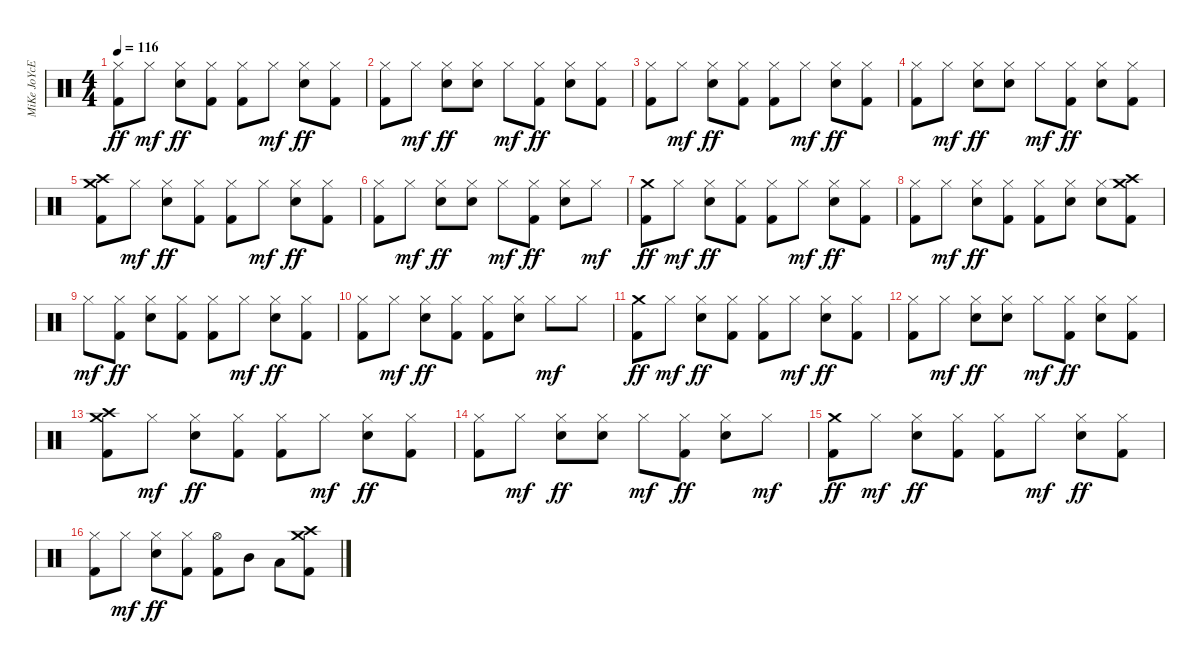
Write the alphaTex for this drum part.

\track ("MiKe JoYcE" "MiKe JoYcE") {instrument percussion}
\staff {score}
\articulation defaults
\ts (4 4)
\tempo 116
\clef neutral
\ks c
("Hi-Hat (closed)" "Kick (hit) 2").8{dy ff} "Hi-Hat (closed)".8{dy mf} ("Hi-Hat (closed)" "Electric Snare (hit)").8{dy ff} ("Hi-Hat (closed)" "Kick (hit) 2").8 ("Hi-Hat (closed)" "Kick (hit) 2").8 "Hi-Hat (closed)".8{dy mf} ("Hi-Hat (closed)" "Electric Snare (hit)").8{dy ff} ("Hi-Hat (closed)" "Kick (hit) 2").8 |
("Hi-Hat (closed)" "Kick (hit) 2").8 "Hi-Hat (closed)".8{dy mf} ("Hi-Hat (closed)" "Electric Snare (hit)").8{dy ff} ("Hi-Hat (closed)" "Electric Snare (hit)").8 "Hi-Hat (closed)".8{dy mf} ("Hi-Hat (closed)" "Kick (hit) 2").8{dy ff} ("Hi-Hat (closed)" "Electric Snare (hit)").8 ("Hi-Hat (closed)" "Kick (hit) 2").8 |
("Hi-Hat (closed)" "Kick (hit) 2").8 "Hi-Hat (closed)".8{dy mf} ("Hi-Hat (closed)" "Electric Snare (hit)").8{dy ff} ("Hi-Hat (closed)" "Kick (hit) 2").8 ("Hi-Hat (closed)" "Kick (hit) 2").8 "Hi-Hat (closed)".8{dy mf} ("Hi-Hat (closed)" "Electric Snare (hit)").8{dy ff} ("Hi-Hat (closed)" "Kick (hit) 2").8 |
("Hi-Hat (closed)" "Kick (hit) 2").8 "Hi-Hat (closed)".8{dy mf} ("Hi-Hat (closed)" "Electric Snare (hit)").8{dy ff} ("Hi-Hat (closed)" "Electric Snare (hit)").8 "Hi-Hat (closed)".8{dy mf} ("Hi-Hat (closed)" "Kick (hit) 2").8{dy ff} ("Hi-Hat (closed)" "Electric Snare (hit)").8 ("Hi-Hat (closed)" "Kick (hit) 2").8 |
("Crash high (hit)" "Crash medium (hit)" "Kick (hit) 2").8 "Hi-Hat (closed)".8{dy mf} ("Hi-Hat (closed)" "Electric Snare (hit)").8{dy ff} ("Hi-Hat (closed)" "Kick (hit) 2").8 ("Hi-Hat (closed)" "Kick (hit) 2").8 "Hi-Hat (closed)".8{dy mf} ("Hi-Hat (closed)" "Electric Snare (hit)").8{dy ff} ("Hi-Hat (closed)" "Kick (hit) 2").8 |
("Hi-Hat (closed)" "Kick (hit) 2").8 "Hi-Hat (closed)".8{dy mf} ("Hi-Hat (closed)" "Electric Snare (hit)").8{dy ff} ("Hi-Hat (closed)" "Electric Snare (hit)").8 "Hi-Hat (closed)".8{dy mf} ("Hi-Hat (closed)" "Kick (hit) 2").8{dy ff} ("Hi-Hat (closed)" "Electric Snare (hit)").8 "Hi-Hat (closed)".8{dy mf} |
("Crash medium (hit)" "Kick (hit) 2").8{dy ff} "Hi-Hat (closed)".8{dy mf} ("Hi-Hat (closed)" "Electric Snare (hit)").8{dy ff} ("Hi-Hat (closed)" "Kick (hit) 2").8 ("Hi-Hat (closed)" "Kick (hit) 2").8 "Hi-Hat (closed)".8{dy mf} ("Hi-Hat (closed)" "Electric Snare (hit)").8{dy ff} ("Hi-Hat (closed)" "Kick (hit) 2").8 |
("Hi-Hat (closed)" "Kick (hit) 2").8 "Hi-Hat (closed)".8{dy mf} ("Hi-Hat (closed)" "Electric Snare (hit)").8{dy ff} ("Hi-Hat (closed)" "Kick (hit) 2").8 ("Hi-Hat (closed)" "Kick (hit) 2").8 ("Hi-Hat (closed)" "Electric Snare (hit)").8 ("Hi-Hat (closed)" "Electric Snare (hit)").8 ("Crash high (hit)" "Crash medium (hit)" "Kick (hit) 2").8 |
"Hi-Hat (closed)".8{dy mf} ("Hi-Hat (closed)" "Kick (hit) 2").8{dy ff} ("Hi-Hat (closed)" "Electric Snare (hit)").8 ("Hi-Hat (closed)" "Kick (hit) 2").8 ("Hi-Hat (closed)" "Kick (hit) 2").8 "Hi-Hat (closed)".8{dy mf} ("Hi-Hat (closed)" "Electric Snare (hit)").8{dy ff} ("Hi-Hat (closed)" "Kick (hit) 2").8 |
("Hi-Hat (closed)" "Kick (hit) 2").8 "Hi-Hat (closed)".8{dy mf} ("Hi-Hat (closed)" "Electric Snare (hit)").8{dy ff} ("Hi-Hat (closed)" "Kick (hit) 2").8 ("Hi-Hat (closed)" "Kick (hit) 2").8 ("Hi-Hat (closed)" "Electric Snare (hit)").8 "Hi-Hat (closed)".8{dy mf} "Hi-Hat (closed)".8 |
("Crash medium (hit)" "Kick (hit) 2").8{dy ff} "Hi-Hat (closed)".8{dy mf} ("Hi-Hat (closed)" "Electric Snare (hit)").8{dy ff} ("Hi-Hat (closed)" "Kick (hit) 2").8 ("Hi-Hat (closed)" "Kick (hit) 2").8 "Hi-Hat (closed)".8{dy mf} ("Hi-Hat (closed)" "Electric Snare (hit)").8{dy ff} ("Hi-Hat (closed)" "Kick (hit) 2").8 |
("Hi-Hat (closed)" "Kick (hit) 2").8 "Hi-Hat (closed)".8{dy mf} ("Hi-Hat (closed)" "Electric Snare (hit)").8{dy ff} ("Hi-Hat (closed)" "Electric Snare (hit)").8 "Hi-Hat (closed)".8{dy mf} ("Hi-Hat (closed)" "Kick (hit) 2").8{dy ff} ("Hi-Hat (closed)" "Electric Snare (hit)").8 ("Hi-Hat (closed)" "Kick (hit) 2").8 |
("Crash high (hit)" "Crash medium (hit)" "Kick (hit) 2").8 "Hi-Hat (closed)".8{dy mf} ("Hi-Hat (closed)" "Electric Snare (hit)").8{dy ff} ("Hi-Hat (closed)" "Kick (hit) 2").8 ("Hi-Hat (closed)" "Kick (hit) 2").8 "Hi-Hat (closed)".8{dy mf} ("Hi-Hat (closed)" "Electric Snare (hit)").8{dy ff} ("Hi-Hat (closed)" "Kick (hit) 2").8 |
("Hi-Hat (closed)" "Kick (hit) 2").8 "Hi-Hat (closed)".8{dy mf} ("Hi-Hat (closed)" "Electric Snare (hit)").8{dy ff} ("Hi-Hat (closed)" "Electric Snare (hit)").8 "Hi-Hat (closed)".8{dy mf} ("Hi-Hat (closed)" "Kick (hit) 2").8{dy ff} ("Hi-Hat (closed)" "Electric Snare (hit)").8 "Hi-Hat (closed)".8{dy mf} |
("Crash medium (hit)" "Kick (hit) 2").8{dy ff} "Hi-Hat (closed)".8{dy mf} ("Hi-Hat (closed)" "Electric Snare (hit)").8{dy ff} ("Hi-Hat (closed)" "Kick (hit) 2").8 ("Hi-Hat (closed)" "Kick (hit) 2").8 "Hi-Hat (closed)".8{dy mf} ("Hi-Hat (closed)" "Electric Snare (hit)").8{dy ff} ("Hi-Hat (closed)" "Kick (hit) 2").8 |
("Hi-Hat (closed)" "Kick (hit) 2").8 "Hi-Hat (closed)".8{dy mf} ("Hi-Hat (closed)" "Electric Snare (hit)").8{dy ff} ("Hi-Hat (closed)" "Kick (hit) 2").8 ("Hi-Hat (open)" "Kick (hit) 2").8 "Mid Tom (hit)".8 "Low Floor Tom (hit)".8 ("Crash high (hit)" "Crash medium (hit)" "Kick (hit) 2").8
